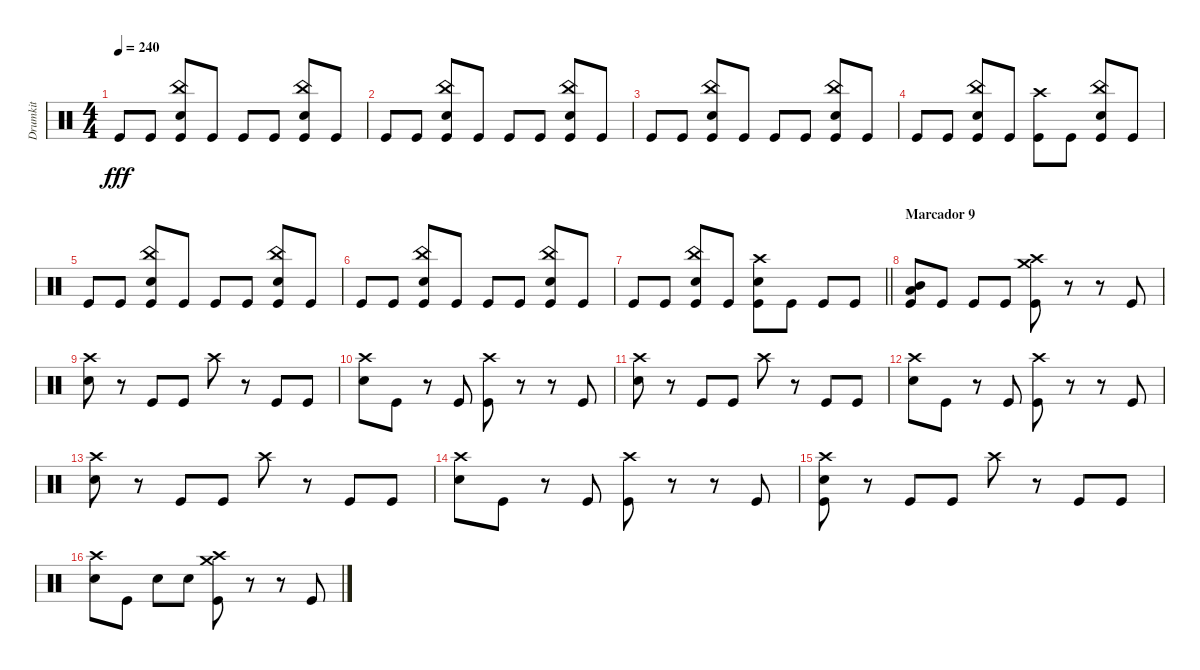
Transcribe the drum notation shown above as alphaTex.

\track ("Drumkit" "Drumkit") {instrument percussion}
\staff {score}
\articulation defaults
\ts (4 4)
\tempo 240
\clef neutral
\ks c "Kick (hit)".8{dy fff} "Kick (hit)".8
("China (hit)" "Snare (hit) 2" "Kick (hit)").8 "Kick (hit)".8 "Kick (hit)".8 "Kick (hit)".8 ("China (hit)" "Snare (hit) 2" "Kick (hit)").8 "Kick (hit)".8 |
"Kick (hit)".8 "Kick (hit)".8 ("China (hit)" "Snare (hit) 2" "Kick (hit)").8 "Kick (hit)".8 "Kick (hit)".8 "Kick (hit)".8 ("China (hit)" "Snare (hit) 2" "Kick (hit)").8 "Kick (hit)".8 |
"Kick (hit)".8 "Kick (hit)".8 ("China (hit)" "Snare (hit) 2" "Kick (hit)").8 "Kick (hit)".8 "Kick (hit)".8 "Kick (hit)".8 ("China (hit)" "Snare (hit) 2" "Kick (hit)").8 "Kick (hit)".8 |
"Kick (hit)".8 "Kick (hit)".8 ("China (hit)" "Snare (hit) 2" "Kick (hit)").8 "Kick (hit)".8 ("Crash high (hit)" "Kick (hit)").8 "Kick (hit)".8 ("China (hit)" "Snare (hit) 2" "Kick (hit)").8 "Kick (hit)".8 |
"Kick (hit)".8 "Kick (hit)".8 ("China (hit)" "Snare (hit) 2" "Kick (hit)").8 "Kick (hit)".8 "Kick (hit)".8 "Kick (hit)".8 ("China (hit)" "Snare (hit) 2" "Kick (hit)").8 "Kick (hit)".8 |
"Kick (hit)".8 "Kick (hit)".8 ("China (hit)" "Snare (hit) 2" "Kick (hit)").8 "Kick (hit)".8 "Kick (hit)".8 "Kick (hit)".8 ("China (hit)" "Snare (hit) 2" "Kick (hit)").8 "Kick (hit)".8 |
\barLineRight lightlight "Kick (hit)".8 "Kick (hit)".8
("China (hit)" "Snare (hit) 2" "Kick (hit)").8 "Kick (hit)".8 ("Crash high (hit)" "Snare (hit) 2" "Kick (hit)").8 "Kick (hit)".8 "Kick (hit)".8 "Kick (hit)".8 |
\section ("" "Marcador 9")
("Mid Tom (hit)" "Low Tom (hit)" "Kick (hit)").8 "Kick (hit)".8 "Kick (hit)".8 "Kick (hit)".8 ("Crash high (hit)" "Crash medium (hit)" "Kick (hit)").8 r.8 r.8 "Kick (hit)".8 |
("Crash high (hit)" "Snare (hit) 2").8 r.8 "Kick (hit)".8 "Kick (hit)".8 "Crash high (hit)".8 r.8 "Kick (hit)".8 "Kick (hit)".8 |
("Crash high (hit)" "Snare (hit) 2").8 "Kick (hit)".8 r.8 "Kick (hit)".8 ("Crash high (hit)" "Kick (hit)").8 r.8 r.8 "Kick (hit)".8 |
("Crash high (hit)" "Snare (hit) 2").8 r.8 "Kick (hit)".8 "Kick (hit)".8 "Crash high (hit)".8 r.8 "Kick (hit)".8 "Kick (hit)".8 |
("Crash high (hit)" "Snare (hit) 2").8 "Kick (hit)".8 r.8 "Kick (hit)".8 ("Crash high (hit)" "Kick (hit)").8 r.8 r.8 "Kick (hit)".8 |
("Crash high (hit)" "Snare (hit) 2").8 r.8 "Kick (hit)".8 "Kick (hit)".8 "Crash high (hit)".8 r.8 "Kick (hit)".8 "Kick (hit)".8 |
("Crash high (hit)" "Snare (hit) 2").8 "Kick (hit)".8 r.8 "Kick (hit)".8 ("Crash high (hit)" "Kick (hit)").8 r.8 r.8 "Kick (hit)".8 |
("Crash high (hit)" "Snare (hit) 2" "Kick (hit)").8 r.8 "Kick (hit)".8 "Kick (hit)".8 "Crash high (hit)".8 r.8 "Kick (hit)".8 "Kick (hit)".8 |
("Crash high (hit)" "Snare (hit) 2").8 "Kick (hit)".8 "Snare (hit) 2".8 "Snare (hit) 2".8 ("Crash high (hit)" "Crash medium (hit)" "Kick (hit)").8 r.8 r.8 "Kick (hit)".8
